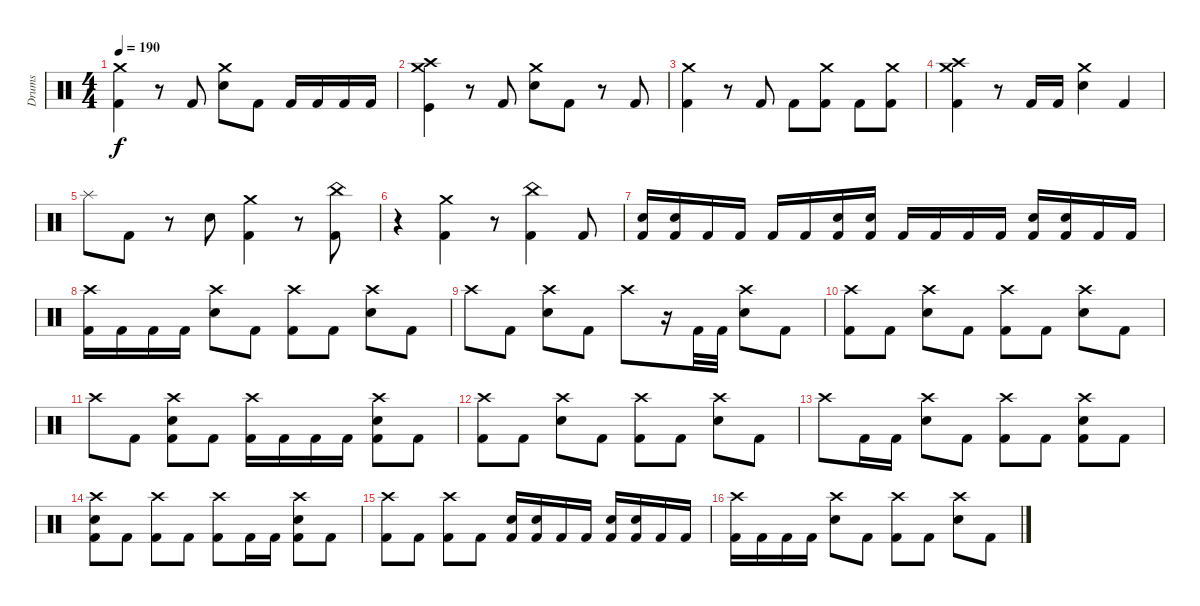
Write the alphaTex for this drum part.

\track ("Drums" "Drums") {instrument percussion}
\staff {score}
\articulation defaults
\ts (4 4)
\tempo 190
\clef neutral
\ks c
("Crash medium (hit)" "Kick (hit) 2").4{dy f} r.8 "Kick (hit) 2".8 ("Crash medium (hit)" "Electric Snare (hit)").8 "Kick (hit) 2".8 "Kick (hit) 2".16 "Kick (hit) 2".16 "Kick (hit) 2".16 "Kick (hit) 2".16 |
("Crash medium (hit)" "Crash high (hit)" "Kick (hit)").4 r.8 "Kick (hit) 2".8 ("Crash medium (hit)" "Electric Snare (hit)").8 "Kick (hit) 2".8 r.8 "Kick (hit) 2".8 |
("Crash medium (hit)" "Kick (hit) 2").4 r.8 "Kick (hit) 2".8 "Kick (hit) 2".8 ("Crash medium (hit)" "Kick (hit) 2").8 "Kick (hit) 2".8 ("Crash medium (hit)" "Kick (hit) 2").8 |
("Crash medium (hit)" "Crash high (hit)" "Kick (hit) 2").4 r.8 "Kick (hit) 2".16 "Kick (hit) 2".16 ("Crash medium (hit)" "Electric Snare (hit)").4 "Kick (hit) 2".4 |
"Splash (hit)".8 "Kick (hit) 2".8 r.8 "Electric Snare (hit)".8 ("Crash medium (hit)" "Kick (hit) 2").4 r.8 ("China (hit)" "Kick (hit) 2").8 |
r.4 ("Crash medium (hit)" "Kick (hit) 2").4 r.8 ("China (hit)" "Kick (hit) 2").4 "Kick (hit) 2".8 |
("Electric Snare (hit)" "Kick (hit) 2").16 ("Electric Snare (hit)" "Kick (hit) 2").16 "Kick (hit) 2".16 "Kick (hit) 2".16 "Kick (hit) 2".16 "Kick (hit) 2".16 ("Electric Snare (hit)" "Kick (hit) 2").16 ("Electric Snare (hit)" "Kick (hit) 2").16 "Kick (hit) 2".16 "Kick (hit) 2".16 "Kick (hit) 2".16 "Kick (hit) 2".16 ("Electric Snare (hit)" "Kick (hit) 2").16 ("Electric Snare (hit)" "Kick (hit) 2").16 "Kick (hit) 2".16 "Kick (hit) 2".16 |
("Crash high (hit)" "Kick (hit) 2").16 "Kick (hit) 2".16 "Kick (hit) 2".16 "Kick (hit) 2".16 ("Crash high (hit)" "Electric Snare (hit)").8 "Kick (hit) 2".8 ("Crash high (hit)" "Kick (hit) 2").8 "Kick (hit) 2".8 ("Crash high (hit)" "Electric Snare (hit)").8 "Kick (hit) 2".8 |
"Crash high (hit)".8 "Kick (hit) 2".8 ("Crash high (hit)" "Electric Snare (hit)").8 "Kick (hit) 2".8 "Crash high (hit)".8 r.16 "Kick (hit) 2".32 "Kick (hit) 2".32 ("Crash high (hit)" "Electric Snare (hit)").8 "Kick (hit) 2".8 |
("Crash high (hit)" "Kick (hit) 2").8 "Kick (hit) 2".8 ("Crash high (hit)" "Electric Snare (hit)").8 "Kick (hit) 2".8 ("Crash high (hit)" "Kick (hit) 2").8 "Kick (hit) 2".8 ("Crash high (hit)" "Electric Snare (hit)").8 "Kick (hit) 2".8 |
"Crash high (hit)".8 "Kick (hit) 2".8 ("Crash high (hit)" "Electric Snare (hit)" "Kick (hit) 2").8 "Kick (hit) 2".8 ("Crash high (hit)" "Kick (hit) 2").16 "Kick (hit) 2".16 "Kick (hit) 2".16 "Kick (hit) 2".16 ("Crash high (hit)" "Electric Snare (hit)" "Kick (hit) 2").8 "Kick (hit) 2".8 |
("Crash high (hit)" "Kick (hit) 2").8 "Kick (hit) 2".8 ("Crash high (hit)" "Electric Snare (hit)").8 "Kick (hit) 2".8 ("Crash high (hit)" "Kick (hit) 2").8 "Kick (hit) 2".8 ("Crash high (hit)" "Electric Snare (hit)").8 "Kick (hit) 2".8 |
"Crash high (hit)".8 "Kick (hit) 2".16 "Kick (hit) 2".16 ("Crash high (hit)" "Electric Snare (hit)").8 "Kick (hit) 2".8 ("Crash high (hit)" "Kick (hit) 2").8 "Kick (hit) 2".8 ("Crash high (hit)" "Electric Snare (hit)" "Kick (hit) 2").8 "Kick (hit) 2".8 |
("Crash high (hit)" "Electric Snare (hit)" "Kick (hit) 2").8 "Kick (hit) 2".8 ("Crash high (hit)" "Kick (hit) 2").8 "Kick (hit) 2".8 ("Crash high (hit)" "Kick (hit) 2").8 "Kick (hit) 2".16 "Kick (hit) 2".16 ("Crash high (hit)" "Electric Snare (hit)" "Kick (hit) 2").8 "Kick (hit) 2".8 |
("Crash high (hit)" "Kick (hit) 2").8 "Kick (hit) 2".8 ("Crash high (hit)" "Kick (hit) 2").8 "Kick (hit) 2".8 ("Electric Snare (hit)" "Kick (hit) 2").16 ("Electric Snare (hit)" "Kick (hit) 2").16 "Kick (hit) 2".16 "Kick (hit) 2".16 ("Electric Snare (hit)" "Kick (hit) 2").16 ("Electric Snare (hit)" "Kick (hit) 2").16 "Kick (hit) 2".16 "Kick (hit) 2".16 |
("Crash high (hit)" "Kick (hit) 2").16 "Kick (hit) 2".16 "Kick (hit) 2".16 "Kick (hit) 2".16 ("Crash high (hit)" "Electric Snare (hit)").8 "Kick (hit) 2".8 ("Crash high (hit)" "Kick (hit) 2").8 "Kick (hit) 2".8 ("Crash high (hit)" "Electric Snare (hit)").8 "Kick (hit) 2".8
